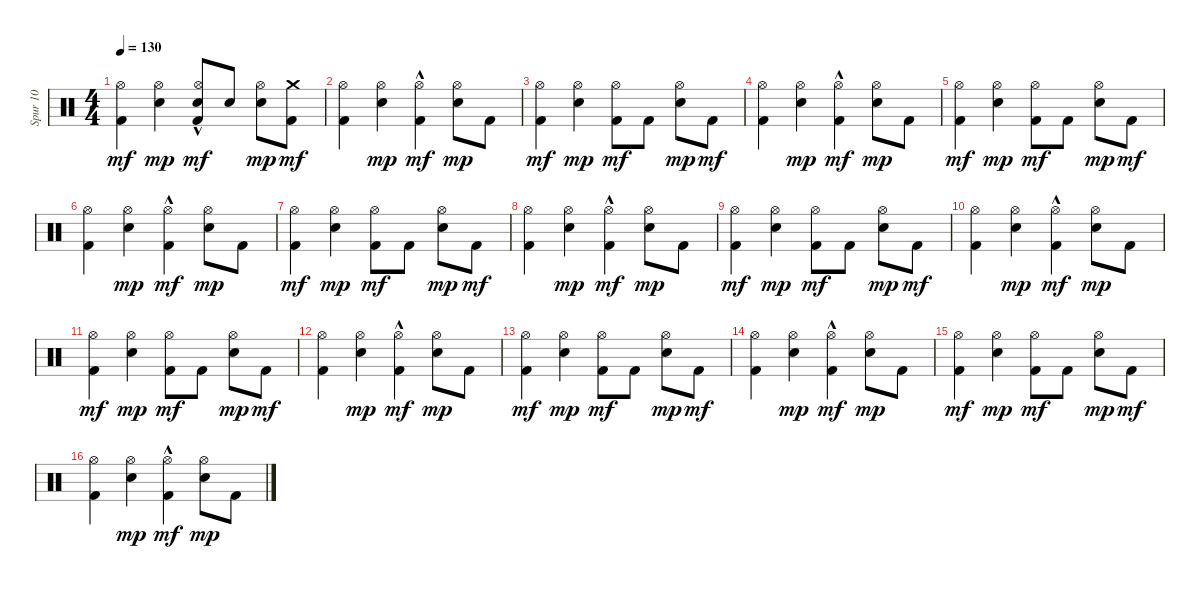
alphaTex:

\track ("Spur 10" "Spur 10") {instrument percussion}
\staff {score}
\articulation defaults
\ts (4 4)
\tempo 130
\clef neutral
\ks c
("Kick (hit) 2" "Hi-Hat (open)").4{dy mf} ("Snare (hit) 2" "Hi-Hat (open)").4{dy mp} ("Snare (hit) 2" "Kick (hit) 2"{hac} "Hi-Hat (open)").8{dy mf} "Snare (hit) 2".8 ("Snare (hit) 2" "Hi-Hat (open)").8{dy mp} ("Crash medium (hit)" "Kick (hit) 2").8{dy mf} |
("Kick (hit) 2" "Hi-Hat (open)").4 ("Snare (hit) 2" "Hi-Hat (open)").4{dy mp} ("Kick (hit) 2"{hac} "Hi-Hat (open)").4{dy mf} ("Snare (hit) 2" "Hi-Hat (open)").8{dy mp} "Kick (hit) 2".8 |
("Kick (hit) 2" "Hi-Hat (open)").4{dy mf} ("Snare (hit) 2" "Hi-Hat (open)").4{dy mp} ("Kick (hit) 2" "Hi-Hat (open)").8{dy mf} "Kick (hit) 2".8 ("Snare (hit) 2" "Hi-Hat (open)").8{dy mp} "Kick (hit) 2".8{dy mf} |
("Kick (hit) 2" "Hi-Hat (open)").4 ("Snare (hit) 2" "Hi-Hat (open)").4{dy mp} ("Kick (hit) 2"{hac} "Hi-Hat (open)").4{dy mf} ("Snare (hit) 2" "Hi-Hat (open)").8{dy mp} "Kick (hit) 2".8 |
("Kick (hit) 2" "Hi-Hat (open)").4{dy mf} ("Snare (hit) 2" "Hi-Hat (open)").4{dy mp} ("Kick (hit) 2" "Hi-Hat (open)").8{dy mf} "Kick (hit) 2".8 ("Snare (hit) 2" "Hi-Hat (open)").8{dy mp} "Kick (hit) 2".8{dy mf} |
("Kick (hit) 2" "Hi-Hat (open)").4 ("Snare (hit) 2" "Hi-Hat (open)").4{dy mp} ("Kick (hit) 2"{hac} "Hi-Hat (open)").4{dy mf} ("Snare (hit) 2" "Hi-Hat (open)").8{dy mp} "Kick (hit) 2".8 |
("Kick (hit) 2" "Hi-Hat (open)").4{dy mf} ("Snare (hit) 2" "Hi-Hat (open)").4{dy mp} ("Kick (hit) 2" "Hi-Hat (open)").8{dy mf} "Kick (hit) 2".8 ("Snare (hit) 2" "Hi-Hat (open)").8{dy mp} "Kick (hit) 2".8{dy mf} |
("Kick (hit) 2" "Hi-Hat (open)").4 ("Snare (hit) 2" "Hi-Hat (open)").4{dy mp} ("Kick (hit) 2"{hac} "Hi-Hat (open)").4{dy mf} ("Snare (hit) 2" "Hi-Hat (open)").8{dy mp} "Kick (hit) 2".8 |
("Kick (hit) 2" "Hi-Hat (open)").4{dy mf} ("Snare (hit) 2" "Hi-Hat (open)").4{dy mp} ("Kick (hit) 2" "Hi-Hat (open)").8{dy mf} "Kick (hit) 2".8 ("Snare (hit) 2" "Hi-Hat (open)").8{dy mp} "Kick (hit) 2".8{dy mf} |
("Kick (hit) 2" "Hi-Hat (open)").4 ("Snare (hit) 2" "Hi-Hat (open)").4{dy mp} ("Kick (hit) 2"{hac} "Hi-Hat (open)").4{dy mf} ("Snare (hit) 2" "Hi-Hat (open)").8{dy mp} "Kick (hit) 2".8 |
("Kick (hit) 2" "Hi-Hat (open)").4{dy mf} ("Snare (hit) 2" "Hi-Hat (open)").4{dy mp} ("Kick (hit) 2" "Hi-Hat (open)").8{dy mf} "Kick (hit) 2".8 ("Snare (hit) 2" "Hi-Hat (open)").8{dy mp} "Kick (hit) 2".8{dy mf} |
("Kick (hit) 2" "Hi-Hat (open)").4 ("Snare (hit) 2" "Hi-Hat (open)").4{dy mp} ("Kick (hit) 2"{hac} "Hi-Hat (open)").4{dy mf} ("Snare (hit) 2" "Hi-Hat (open)").8{dy mp} "Kick (hit) 2".8 |
("Kick (hit) 2" "Hi-Hat (open)").4{dy mf} ("Snare (hit) 2" "Hi-Hat (open)").4{dy mp} ("Kick (hit) 2" "Hi-Hat (open)").8{dy mf} "Kick (hit) 2".8 ("Snare (hit) 2" "Hi-Hat (open)").8{dy mp} "Kick (hit) 2".8{dy mf} |
("Kick (hit) 2" "Hi-Hat (open)").4 ("Snare (hit) 2" "Hi-Hat (open)").4{dy mp} ("Kick (hit) 2"{hac} "Hi-Hat (open)").4{dy mf} ("Snare (hit) 2" "Hi-Hat (open)").8{dy mp} "Kick (hit) 2".8 |
("Kick (hit) 2" "Hi-Hat (open)").4{dy mf} ("Snare (hit) 2" "Hi-Hat (open)").4{dy mp} ("Kick (hit) 2" "Hi-Hat (open)").8{dy mf} "Kick (hit) 2".8 ("Snare (hit) 2" "Hi-Hat (open)").8{dy mp} "Kick (hit) 2".8{dy mf} |
("Kick (hit) 2" "Hi-Hat (open)").4 ("Snare (hit) 2" "Hi-Hat (open)").4{dy mp} ("Kick (hit) 2"{hac} "Hi-Hat (open)").4{dy mf} ("Snare (hit) 2" "Hi-Hat (open)").8{dy mp} "Kick (hit) 2".8
